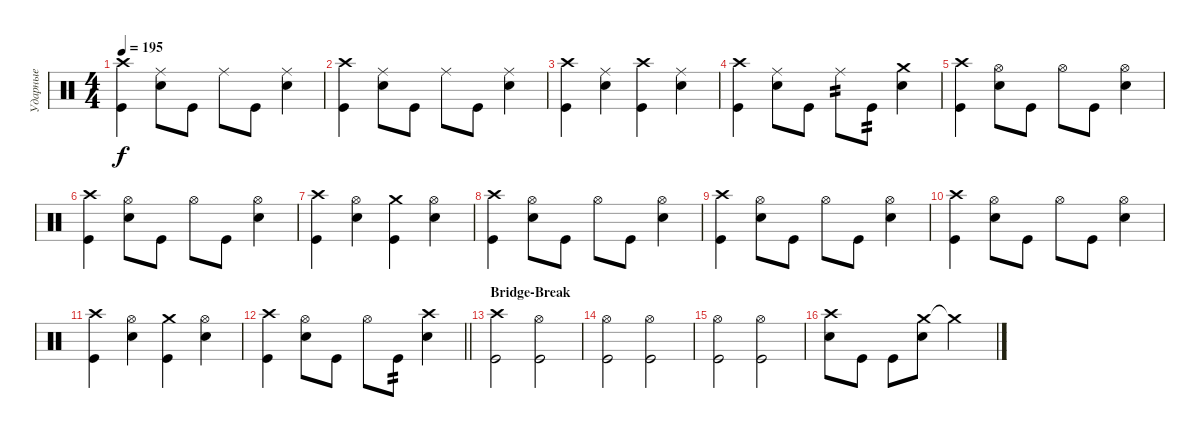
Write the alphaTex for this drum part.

\track ("Ударные" "Ударные") {instrument percussion}
\staff {score}
\articulation defaults
\ts (4 4)
\tempo 195
\clef neutral
\ks c
("Kick (hit)" "Crash high (hit)").4{dy f} ("Snare (hit) 2" "Ride (middle)").8 "Kick (hit)".8 "Ride (middle)".8 "Kick (hit)".8 ("Snare (hit) 2" "Ride (middle)").4 |
("Kick (hit)" "Crash high (hit)").4 ("Snare (hit) 2" "Ride (middle)").8 "Kick (hit)".8 "Ride (middle)".8 "Kick (hit)".8 ("Snare (hit) 2" "Ride (middle)").4 |
("Kick (hit)" "Crash high (hit)").4 ("Snare (hit) 2" "Ride (middle)").4 ("Kick (hit)" "Crash high (hit)").4 ("Snare (hit) 2" "Ride (middle)").4 |
("Kick (hit)" "Crash high (hit)").4 ("Snare (hit) 2" "Ride (middle)").8 "Kick (hit)".8 "Ride (middle)".8{tp 2} "Kick (hit)".8{tp 2} ("Snare (hit) 2" "Crash medium (hit)").4 |
("Kick (hit)" "Crash high (hit)").4 ("Snare (hit) 2" "Hi-Hat (open)").8 "Kick (hit)".8 "Hi-Hat (open)".8 "Kick (hit)".8 ("Snare (hit) 2" "Hi-Hat (open)").4 |
("Kick (hit)" "Crash high (hit)").4 ("Snare (hit) 2" "Hi-Hat (open)").8 "Kick (hit)".8 "Hi-Hat (open)".8 "Kick (hit)".8 ("Snare (hit) 2" "Hi-Hat (open)").4 |
("Kick (hit)" "Crash high (hit)").4 ("Snare (hit) 2" "Hi-Hat (open)").4 ("Kick (hit)" "Crash medium (hit)").4 ("Snare (hit) 2" "Hi-Hat (open)").4 |
("Kick (hit)" "Crash high (hit)").4 ("Snare (hit) 2" "Hi-Hat (open)").8 "Kick (hit)".8 "Hi-Hat (open)".8 "Kick (hit)".8 ("Snare (hit) 2" "Hi-Hat (open)").4 |
("Kick (hit)" "Crash high (hit)").4 ("Snare (hit) 2" "Hi-Hat (open)").8 "Kick (hit)".8 "Hi-Hat (open)".8 "Kick (hit)".8 ("Snare (hit) 2" "Hi-Hat (open)").4 |
("Kick (hit)" "Crash high (hit)").4 ("Snare (hit) 2" "Hi-Hat (open)").8 "Kick (hit)".8 "Hi-Hat (open)".8 "Kick (hit)".8 ("Snare (hit) 2" "Hi-Hat (open)").4 |
("Kick (hit)" "Crash high (hit)").4 ("Snare (hit) 2" "Hi-Hat (open)").4 ("Kick (hit)" "Crash medium (hit)").4 ("Snare (hit) 2" "Hi-Hat (open)").4 |
\barLineRight lightlight
("Kick (hit)" "Crash high (hit)").4 ("Snare (hit) 2" "Hi-Hat (open)").8 "Kick (hit)".8 "Hi-Hat (open)".8 "Kick (hit)".8{tp 2} ("Snare (hit) 2" "Crash high (hit)").4 |
\section ("" "Bridge-Break")
("Kick (hit)" "Crash high (hit)").2 ("Kick (hit)" "Hi-Hat (open)").2 |
("Hi-Hat (open)" "Kick (hit)").2 ("Hi-Hat (open)" "Kick (hit)").2 |
("Kick (hit)" "Hi-Hat (open)").2 ("Hi-Hat (open)" "Kick (hit)").2 |
("Snare (hit) 2" "Crash high (hit)").8 "Kick (hit)".8 "Kick (hit)".8 ("Crash medium (hit)" "Snare (hit) 2").8 "Crash medium (hit)"{t}.2
